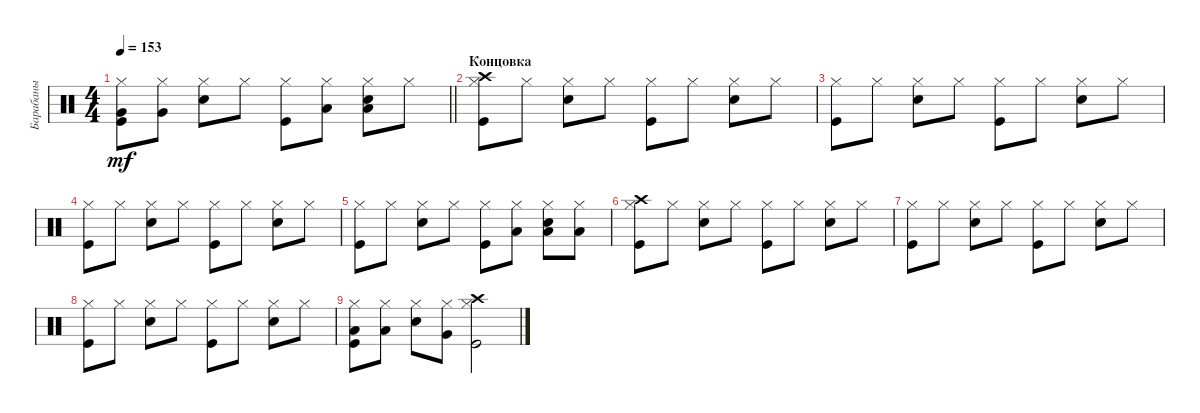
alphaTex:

\track ("Барабаны" "Барабаны") {instrument percussion}
\staff {score}
\articulation defaults
\ts (4 4)
\tempo 153
\clef neutral
\barLineRight lightlight
\ks c
("Kick (hit)" "Hi-Hat (closed)" "Very Low Tom (hit)").8{dy mf} ("Hi-Hat (closed)" "Very Low Tom (hit)").8 ("Snare (hit) 2" "Hi-Hat (closed)").8 "Hi-Hat (closed)".8 ("Kick (hit)" "Hi-Hat (closed)").8 ("Hi-Hat (closed)" "Low Floor Tom (hit)").8 ("Snare (hit) 2" "Hi-Hat (closed)" "Low Floor Tom (hit)").8 "Hi-Hat (closed)".8 |
\section ("" "Концовка")
("Kick (hit)" "Hi-Hat (closed)" "Crash high (hit)").8 "Hi-Hat (closed)".8 ("Snare (hit) 2" "Hi-Hat (closed)").8 "Hi-Hat (closed)".8 ("Kick (hit)" "Hi-Hat (closed)").8 "Hi-Hat (closed)".8 ("Snare (hit) 2" "Hi-Hat (closed)").8 "Hi-Hat (closed)".8 |
("Kick (hit)" "Hi-Hat (closed)").8 "Hi-Hat (closed)".8 ("Snare (hit) 2" "Hi-Hat (closed)").8 "Hi-Hat (closed)".8 ("Kick (hit)" "Hi-Hat (closed)").8 "Hi-Hat (closed)".8 ("Snare (hit) 2" "Hi-Hat (closed)").8 "Hi-Hat (closed)".8 |
("Kick (hit)" "Hi-Hat (closed)").8 "Hi-Hat (closed)".8 ("Snare (hit) 2" "Hi-Hat (closed)").8 "Hi-Hat (closed)".8 ("Kick (hit)" "Hi-Hat (closed)").8 "Hi-Hat (closed)".8 ("Snare (hit) 2" "Hi-Hat (closed)").8 "Hi-Hat (closed)".8 |
("Kick (hit)" "Hi-Hat (closed)").8 "Hi-Hat (closed)".8 ("Snare (hit) 2" "Hi-Hat (closed)").8 "Hi-Hat (closed)".8 ("Kick (hit)" "Hi-Hat (closed)").8 ("Hi-Hat (closed)" "Low Tom (hit)").8 ("Snare (hit) 2" "Hi-Hat (closed)" "Low Tom (hit)").8 ("Hi-Hat (closed)" "Low Tom (hit)").8 |
("Kick (hit)" "Hi-Hat (closed)" "Crash high (hit)").8 "Hi-Hat (closed)".8 ("Snare (hit) 2" "Hi-Hat (closed)").8 "Hi-Hat (closed)".8 ("Kick (hit)" "Hi-Hat (closed)").8 "Hi-Hat (closed)".8 ("Snare (hit) 2" "Hi-Hat (closed)").8 "Hi-Hat (closed)".8 |
("Kick (hit)" "Hi-Hat (closed)").8 "Hi-Hat (closed)".8 ("Snare (hit) 2" "Hi-Hat (closed)").8 "Hi-Hat (closed)".8 ("Kick (hit)" "Hi-Hat (closed)").8 "Hi-Hat (closed)".8 ("Snare (hit) 2" "Hi-Hat (closed)").8 "Hi-Hat (closed)".8 |
("Kick (hit)" "Hi-Hat (closed)").8 "Hi-Hat (closed)".8 ("Snare (hit) 2" "Hi-Hat (closed)").8 "Hi-Hat (closed)".8 ("Kick (hit)" "Hi-Hat (closed)").8 "Hi-Hat (closed)".8 ("Snare (hit) 2" "Hi-Hat (closed)").8 "Hi-Hat (closed)".8 |
("Kick (hit)" "Hi-Hat (closed)" "Low Tom (hit)").8 ("Hi-Hat (closed)" "Low Tom (hit)").8 ("Snare (hit) 2" "Hi-Hat (closed)").8 ("Hi-Hat (closed)" "Very Low Tom (hit)").8 ("Kick (hit)" "Hi-Hat (closed)" "Crash high (hit)").2
